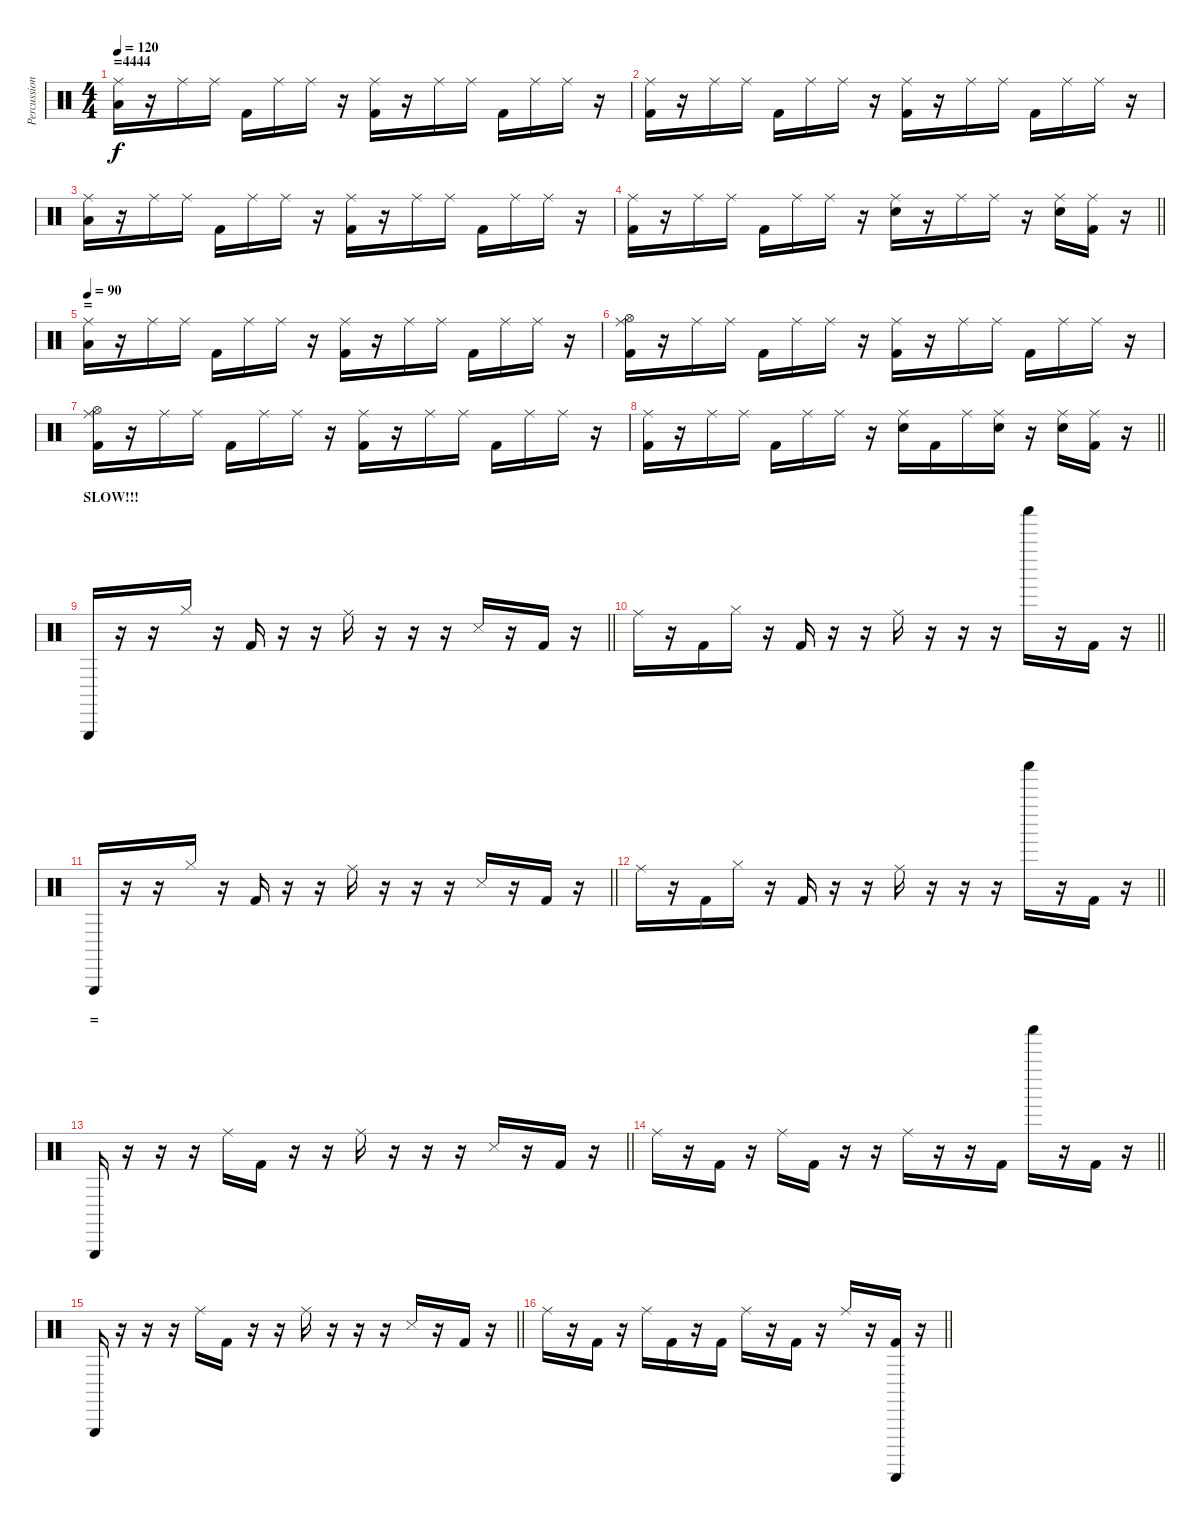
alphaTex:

\track ("Percussion" "Percussion") {instrument percussion}
\staff {score}
\articulation defaults
\ts (4 4)
\section ("" "=4444")
\tempo 120
\clef neutral
\ks c
("Low Floor Tom (hit)" "Ride (middle)").16{dy f} r.16 "Ride (middle)".16 "Ride (middle)".16 "Kick (hit) 2".16 "Ride (middle)".16 "Ride (middle)".16 r.16 ("Kick (hit) 2" "Ride (middle)").16 r.16 "Ride (middle)".16 "Ride (middle)".16 "Kick (hit) 2".16 "Ride (middle)".16 "Ride (middle)".16 r.16 |
("Kick (hit) 2" "Ride (middle)").16 r.16 "Ride (middle)".16 "Ride (middle)".16 "Kick (hit) 2".16 "Ride (middle)".16 "Ride (middle)".16 r.16 ("Kick (hit) 2" "Ride (middle)").16 r.16 "Ride (middle)".16 "Ride (middle)".16 "Kick (hit) 2".16 "Ride (middle)".16 "Ride (middle)".16 r.16 |
("Low Floor Tom (hit)" "Ride (middle)").16 r.16 "Ride (middle)".16 "Ride (middle)".16 "Kick (hit) 2".16 "Ride (middle)".16 "Ride (middle)".16 r.16 ("Kick (hit) 2" "Ride (middle)").16 r.16 "Ride (middle)".16 "Ride (middle)".16 "Kick (hit) 2".16 "Ride (middle)".16 "Ride (middle)".16 r.16 |
\barLineRight lightlight
("Kick (hit) 2" "Ride (middle)").16 r.16 "Ride (middle)".16 "Ride (middle)".16 "Kick (hit) 2".16 "Ride (middle)".16 "Ride (middle)".16 r.16 ("Ride (middle)" "Electric Snare (hit)").16 r.16 "Ride (middle)".16 "Ride (middle)".16 r.16 ("Ride (middle)" "Electric Snare (hit)").16 ("Kick (hit) 2" "Ride (middle)").16 r.16 |
\section ("" "=")
\tempo 90
("Low Floor Tom (hit)" "Ride (middle)").16 r.16 "Ride (middle)".16 "Ride (middle)".16 "Kick (hit) 2".16 "Ride (middle)".16 "Ride (middle)".16 r.16 ("Kick (hit) 2" "Ride (middle)").16 r.16 "Ride (middle)".16 "Ride (middle)".16 "Kick (hit) 2".16 "Ride (middle)".16 "Ride (middle)".16 r.16 |
("Kick (hit) 2" "Ride (middle)" "Hi-Hat (open)").16 r.16 "Ride (middle)".16 "Ride (middle)".16 "Kick (hit) 2".16 "Ride (middle)".16 "Ride (middle)".16 r.16 ("Kick (hit) 2" "Ride (middle)").16 r.16 "Ride (middle)".16 "Ride (middle)".16 "Kick (hit) 2".16 "Ride (middle)".16 "Ride (middle)".16 r.16 |
("Kick (hit) 2" "Ride (middle)" "Hi-Hat (open)").16 r.16 "Ride (middle)".16 "Ride (middle)".16 "Kick (hit) 2".16 "Ride (middle)".16 "Ride (middle)".16 r.16 ("Kick (hit) 2" "Ride (middle)").16 r.16 "Ride (middle)".16 "Ride (middle)".16 "Kick (hit) 2".16 "Ride (middle)".16 "Ride (middle)".16 r.16 |
\barLineRight lightlight
("Kick (hit) 2" "Ride (middle)").16 r.16 "Ride (middle)".16 "Ride (middle)".16 "Kick (hit) 2".16 "Ride (middle)".16 "Ride (middle)".16 r.16 ("Ride (middle)" "Electric Snare (hit)").16 "Kick (hit) 2".16 "Ride (middle)".16 ("Ride (middle)" "Electric Snare (hit)").16 r.16 ("Ride (middle)" "Electric Snare (hit)").16 ("Kick (hit) 2" "Ride (middle)").16 r.16 |
\section ("" "SLOW!!!")
\barLineRight lightlight "Triangle (hit)".16
r.16 r.16 "Hi-Hat (closed)".16 r.16 "Kick (hit) 2".16 r.16 r.16 "Ride (middle)".16 r.16 r.16 r.16 "Snare (side stick) 3".16 r.16 "Kick (hit) 2".16 r.16 |
\barLineRight lightlight "Ride (middle)".16
r.16 "Kick (hit) 2".16 "Hi-Hat (closed)".16 r.16 "Kick (hit) 2".16 r.16 r.16 "Ride (middle)".16 r.16 r.16 r.16 "Shaker (hit)".16 r.16 "Kick (hit) 2".16 r.16 |
\barLineRight lightlight "Triangle (hit)".16
r.16 r.16 "Hi-Hat (closed)".16 r.16 "Kick (hit) 2".16 r.16 r.16 "Ride (middle)".16 r.16 r.16 r.16 "Snare (side stick) 3".16 r.16 "Kick (hit) 2".16 r.16 |
\barLineRight lightlight "Ride (middle)".16
r.16 "Kick (hit) 2".16 "Hi-Hat (closed)".16 r.16 "Kick (hit) 2".16 r.16 r.16 "Ride (middle)".16 r.16 r.16 r.16 "Shaker (hit)".16 r.16 "Kick (hit) 2".16 r.16 |
\section ("" "=")
\barLineRight lightlight "Triangle (hit)".16
r.16 r.16 r.16 "Ride (middle)".16 "Kick (hit) 2".16 r.16 r.16 "Ride (middle)".16 r.16 r.16 r.16 "Snare (side stick) 3".16 r.16 "Kick (hit) 2".16 r.16 |
\barLineRight lightlight "Ride (middle)".16
r.16 "Kick (hit) 2".16 r.16 "Ride (middle)".16 "Kick (hit) 2".16 r.16 r.16 "Ride (middle)".16 r.16 r.16 "Kick (hit) 2".16 "Shaker (hit)".16 r.16 "Kick (hit) 2".16 r.16 |
\barLineRight lightlight "Triangle (hit)".16
r.16 r.16 r.16 "Ride (middle)".16 "Kick (hit) 2".16 r.16 r.16 "Ride (middle)".16 r.16 r.16 r.16 "Snare (side stick) 3".16 r.16 "Kick (hit) 2".16 r.16 |
\barLineRight lightlight "Ride (middle)".16
r.16 "Kick (hit) 2".16 r.16 "Ride (middle)".16 "Kick (hit) 2".16 r.16 "Kick (hit) 2".16 "Ride (middle)".16 r.16 "Kick (hit) 2".16 r.16 "Ride (middle)".16 r.16 ("Kick (hit) 2" "Guiro (scrap-return)").16 r.16
